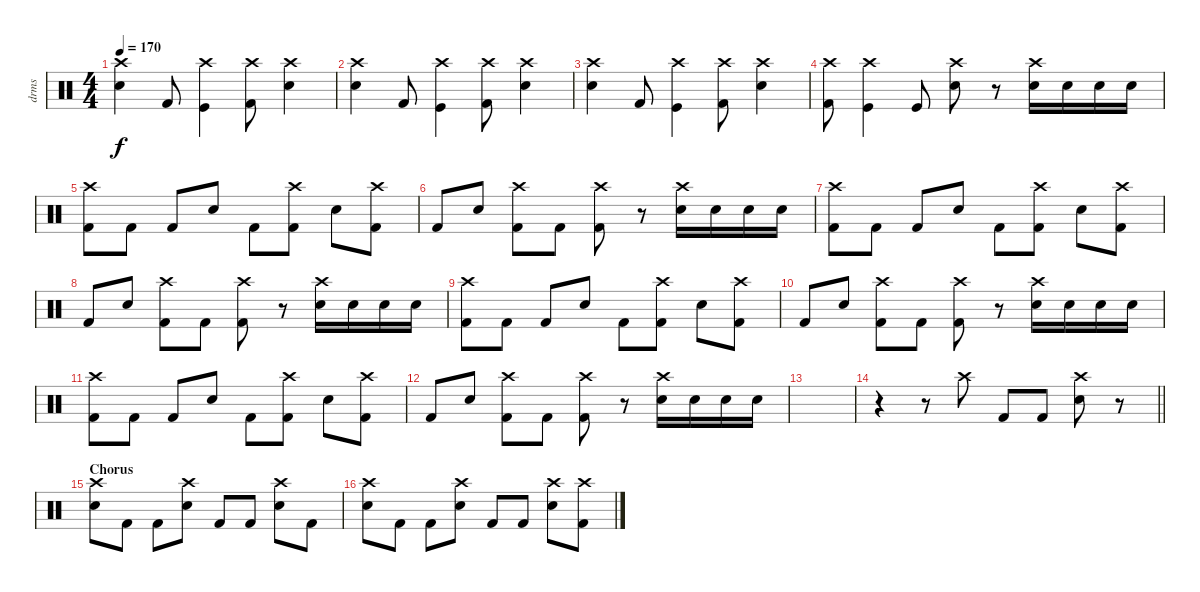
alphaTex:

\track ("drms" "drms") {instrument percussion}
\staff {score}
\articulation defaults
\ts (4 4)
\tempo 170
\clef neutral
\ks c
("Crash high (hit)" "Snare (hit) 2").4{dy f} "Kick (hit) 2".8 ("Crash high (hit)" "Kick (hit)").4 ("Crash high (hit)" "Kick (hit) 2").8 ("Crash high (hit)" "Snare (hit) 2").4 |
("Crash high (hit)" "Snare (hit) 2").4 "Kick (hit) 2".8 ("Crash high (hit)" "Kick (hit)").4 ("Crash high (hit)" "Kick (hit) 2").8 ("Crash high (hit)" "Snare (hit) 2").4 |
("Crash high (hit)" "Snare (hit) 2").4 "Kick (hit) 2".8 ("Crash high (hit)" "Kick (hit)").4 ("Crash high (hit)" "Kick (hit) 2").8 ("Crash high (hit)" "Snare (hit) 2").4 |
("Crash high (hit)" "Kick (hit) 2").8 ("Crash high (hit)" "Kick (hit)").4 "Kick (hit)".8 ("Crash high (hit)" "Snare (hit) 2").8 r.8 ("Crash high (hit)" "Snare (hit) 2").16 "Snare (hit) 2".16 "Snare (hit) 2".16 "Snare (hit) 2".16 |
("Crash high (hit)" "Kick (hit) 2").8 "Kick (hit) 2".8 "Kick (hit) 2".8 "Snare (hit) 2".8 "Kick (hit) 2".8 ("Crash high (hit)" "Kick (hit) 2").8 "Snare (hit) 2".8 ("Crash high (hit)" "Kick (hit) 2").8 |
"Kick (hit) 2".8 "Snare (hit) 2".8 ("Crash high (hit)" "Kick (hit) 2").8 "Kick (hit) 2".8 ("Crash high (hit)" "Kick (hit) 2").8 r.8 ("Crash high (hit)" "Snare (hit) 2").16 "Snare (hit) 2".16 "Snare (hit) 2".16 "Snare (hit) 2".16 |
("Crash high (hit)" "Kick (hit) 2").8 "Kick (hit) 2".8 "Kick (hit) 2".8 "Snare (hit) 2".8 "Kick (hit) 2".8 ("Crash high (hit)" "Kick (hit) 2").8 "Snare (hit) 2".8 ("Crash high (hit)" "Kick (hit) 2").8 |
"Kick (hit) 2".8 "Snare (hit) 2".8 ("Crash high (hit)" "Kick (hit) 2").8 "Kick (hit) 2".8 ("Crash high (hit)" "Kick (hit) 2").8 r.8 ("Crash high (hit)" "Snare (hit) 2").16 "Snare (hit) 2".16 "Snare (hit) 2".16 "Snare (hit) 2".16 |
("Crash high (hit)" "Kick (hit) 2").8 "Kick (hit) 2".8 "Kick (hit) 2".8 "Snare (hit) 2".8 "Kick (hit) 2".8 ("Crash high (hit)" "Kick (hit) 2").8 "Snare (hit) 2".8 ("Crash high (hit)" "Kick (hit) 2").8 |
"Kick (hit) 2".8 "Snare (hit) 2".8 ("Crash high (hit)" "Kick (hit) 2").8 "Kick (hit) 2".8 ("Crash high (hit)" "Kick (hit) 2").8 r.8 ("Crash high (hit)" "Snare (hit) 2").16 "Snare (hit) 2".16 "Snare (hit) 2".16 "Snare (hit) 2".16 |
("Crash high (hit)" "Kick (hit) 2").8 "Kick (hit) 2".8 "Kick (hit) 2".8 "Snare (hit) 2".8 "Kick (hit) 2".8 ("Crash high (hit)" "Kick (hit) 2").8 "Snare (hit) 2".8 ("Crash high (hit)" "Kick (hit) 2").8 |
"Kick (hit) 2".8 "Snare (hit) 2".8 ("Crash high (hit)" "Kick (hit) 2").8 "Kick (hit) 2".8 ("Crash high (hit)" "Kick (hit) 2").8 r.8 ("Crash high (hit)" "Snare (hit) 2").16 "Snare (hit) 2".16 "Snare (hit) 2".16 "Snare (hit) 2".16 |
|
\barLineRight lightlight
r.4 r.8 "Crash high (hit)".8 "Kick (hit) 2".8 "Kick (hit) 2".8 ("Crash high (hit)" "Snare (hit) 2").8 r.8 |
\section ("" "Chorus")
("Crash high (hit)" "Snare (hit) 2").8 "Kick (hit) 2".8 "Kick (hit) 2".8 ("Crash high (hit)" "Snare (hit) 2").8 "Kick (hit) 2".8 "Kick (hit) 2".8 ("Crash high (hit)" "Snare (hit) 2").8 "Kick (hit) 2".8 |
("Crash high (hit)" "Snare (hit) 2").8 "Kick (hit) 2".8 "Kick (hit) 2".8 ("Crash high (hit)" "Snare (hit) 2").8 "Kick (hit) 2".8 "Kick (hit) 2".8 ("Crash high (hit)" "Snare (hit) 2").8 ("Crash high (hit)" "Kick (hit) 2").8
